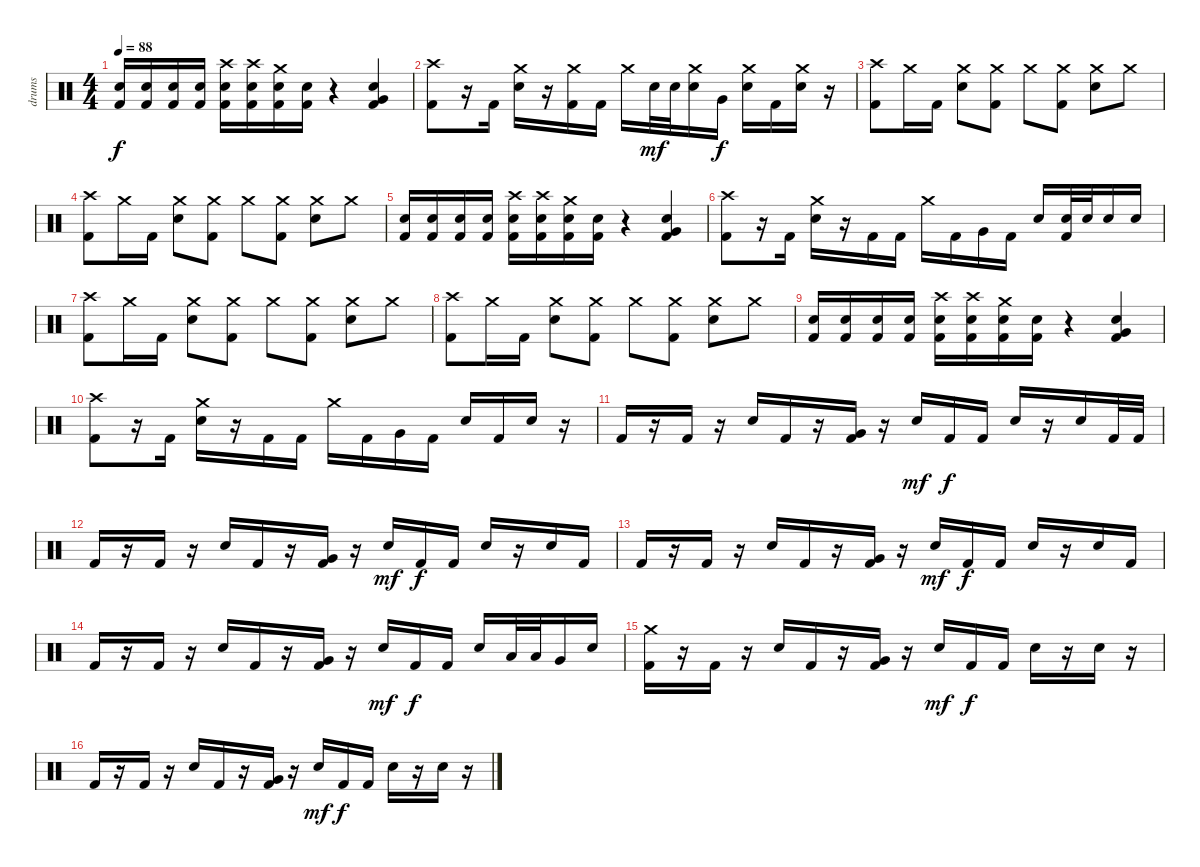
\track ("drums" "drums") {instrument percussion}
\staff {score}
\articulation defaults
\ts (4 4)
\tempo 88
\clef neutral
\ks c
("Electric Snare (hit)" "Kick (hit) 2").16{dy f} ("Electric Snare (hit)" "Kick (hit) 2").16 ("Electric Snare (hit)" "Kick (hit) 2").16 ("Electric Snare (hit)" "Kick (hit) 2").16 ("Crash high (hit)" "Electric Snare (hit)" "Kick (hit) 2").16 ("Crash high (hit)" "Electric Snare (hit)" "Kick (hit) 2").16 ("Crash medium (hit)" "Electric Snare (hit)" "Kick (hit) 2").16 ("Electric Snare (hit)" "Kick (hit) 2").16 r.4 ("Electric Snare (hit)" "Very Low Tom (hit)" "Kick (hit) 2").4 |
("Crash high (hit)" "Kick (hit) 2").8 r.16 "Kick (hit) 2".16 ("Crash medium (hit)" "Electric Snare (hit)").16 r.16 ("Crash medium (hit)" "Kick (hit) 2").16 "Kick (hit) 2".16 "Crash medium (hit)".16 "Electric Snare (hit)".32{dy mf} "Electric Snare (hit)".32 ("Crash medium (hit)" "Electric Snare (hit)").16 "Very Low Tom (hit)".16{dy f} ("Crash medium (hit)" "Electric Snare (hit)").16 "Kick (hit) 2".16 ("Crash medium (hit)" "Electric Snare (hit)").16 r.16 |
("Crash high (hit)" "Kick (hit) 2").8 "Crash medium (hit)".16 "Kick (hit) 2".16 ("Crash medium (hit)" "Electric Snare (hit)").8 ("Crash medium (hit)" "Kick (hit) 2").8 "Crash medium (hit)".8 ("Crash medium (hit)" "Kick (hit) 2").8 ("Crash medium (hit)" "Electric Snare (hit)").8 "Crash medium (hit)".8 |
("Crash high (hit)" "Kick (hit) 2").8 "Crash medium (hit)".16 "Kick (hit) 2".16 ("Crash medium (hit)" "Electric Snare (hit)").8 ("Crash medium (hit)" "Kick (hit) 2").8 "Crash medium (hit)".8 ("Crash medium (hit)" "Kick (hit) 2").8 ("Crash medium (hit)" "Electric Snare (hit)").8 "Crash medium (hit)".8 |
("Electric Snare (hit)" "Kick (hit) 2").16 ("Electric Snare (hit)" "Kick (hit) 2").16 ("Electric Snare (hit)" "Kick (hit) 2").16 ("Electric Snare (hit)" "Kick (hit) 2").16 ("Crash high (hit)" "Electric Snare (hit)" "Kick (hit) 2").16 ("Crash high (hit)" "Electric Snare (hit)" "Kick (hit) 2").16 ("Crash medium (hit)" "Electric Snare (hit)" "Kick (hit) 2").16 ("Electric Snare (hit)" "Kick (hit) 2").16 r.4 ("Electric Snare (hit)" "Very Low Tom (hit)" "Kick (hit) 2").4 |
("Crash high (hit)" "Kick (hit) 2").8 r.16 "Kick (hit) 2".16 ("Crash medium (hit)" "Electric Snare (hit)").16 r.16 "Kick (hit) 2".16 "Kick (hit) 2".16 "Crash medium (hit)".16 "Kick (hit) 2".16 "Very Low Tom (hit)".16 "Kick (hit) 2".16 "Electric Snare (hit)".16 ("Electric Snare (hit)" "Kick (hit) 2").32 "Electric Snare (hit)".32 "Electric Snare (hit)".16 "Electric Snare (hit)".16 |
("Crash high (hit)" "Kick (hit) 2").8 "Crash medium (hit)".16 "Kick (hit) 2".16 ("Crash medium (hit)" "Electric Snare (hit)").8 ("Crash medium (hit)" "Kick (hit) 2").8 "Crash medium (hit)".8 ("Crash medium (hit)" "Kick (hit) 2").8 ("Crash medium (hit)" "Electric Snare (hit)").8 "Crash medium (hit)".8 |
("Crash high (hit)" "Kick (hit) 2").8 "Crash medium (hit)".16 "Kick (hit) 2".16 ("Crash medium (hit)" "Electric Snare (hit)").8 ("Crash medium (hit)" "Kick (hit) 2").8 "Crash medium (hit)".8 ("Crash medium (hit)" "Kick (hit) 2").8 ("Crash medium (hit)" "Electric Snare (hit)").8 "Crash medium (hit)".8 |
("Electric Snare (hit)" "Kick (hit) 2").16 ("Electric Snare (hit)" "Kick (hit) 2").16 ("Electric Snare (hit)" "Kick (hit) 2").16 ("Electric Snare (hit)" "Kick (hit) 2").16 ("Crash high (hit)" "Electric Snare (hit)" "Kick (hit) 2").16 ("Crash high (hit)" "Electric Snare (hit)" "Kick (hit) 2").16 ("Crash medium (hit)" "Electric Snare (hit)" "Kick (hit) 2").16 ("Electric Snare (hit)" "Kick (hit) 2").16 r.4 ("Electric Snare (hit)" "Very Low Tom (hit)" "Kick (hit) 2").4 |
("Crash high (hit)" "Kick (hit) 2").8 r.16 "Kick (hit) 2".16 ("Crash medium (hit)" "Electric Snare (hit)").16 r.16 "Kick (hit) 2".16 "Kick (hit) 2".16 "Crash medium (hit)".16 "Kick (hit) 2".16 "Very Low Tom (hit)".16 "Kick (hit) 2".16 "Electric Snare (hit)".16 "Kick (hit) 2".16 "Electric Snare (hit)".16 r.16 |
"Kick (hit) 2".16 r.16 "Kick (hit) 2".16 r.16 "Electric Snare (hit)".16 "Kick (hit) 2".16 r.16 ("Very Low Tom (hit)" "Kick (hit) 2").16 r.16 "Electric Snare (hit)".16{dy mf} "Kick (hit) 2".16{dy f} "Kick (hit) 2".16 "Electric Snare (hit)".16 r.16 "Electric Snare (hit)".16 "Kick (hit) 2".32 "Kick (hit) 2".32 |
"Kick (hit) 2".16 r.16 "Kick (hit) 2".16 r.16 "Electric Snare (hit)".16 "Kick (hit) 2".16 r.16 ("Very Low Tom (hit)" "Kick (hit) 2").16 r.16 "Electric Snare (hit)".16{dy mf} "Kick (hit) 2".16{dy f} "Kick (hit) 2".16 "Electric Snare (hit)".16 r.16 "Electric Snare (hit)".16 "Kick (hit) 2".16 |
"Kick (hit) 2".16 r.16 "Kick (hit) 2".16 r.16 "Electric Snare (hit)".16 "Kick (hit) 2".16 r.16 ("Very Low Tom (hit)" "Kick (hit) 2").16 r.16 "Electric Snare (hit)".16{dy mf} "Kick (hit) 2".16{dy f} "Kick (hit) 2".16 "Electric Snare (hit)".16 r.16 "Electric Snare (hit)".16 "Kick (hit) 2".16 |
"Kick (hit) 2".16 r.16 "Kick (hit) 2".16 r.16 "Electric Snare (hit)".16 "Kick (hit) 2".16 r.16 ("Very Low Tom (hit)" "Kick (hit) 2").16 r.16 "Electric Snare (hit)".16{dy mf} "Kick (hit) 2".16{dy f} "Kick (hit) 2".16 "Electric Snare (hit)".16 "Low Tom (hit)".32 "Low Tom (hit)".32 "Very Low Tom (hit)".16 "Electric Snare (hit)".16 |
("Crash medium (hit)" "Kick (hit) 2").16 r.16 "Kick (hit) 2".16 r.16 "Electric Snare (hit)".16 "Kick (hit) 2".16 r.16 ("Very Low Tom (hit)" "Kick (hit) 2").16 r.16 "Electric Snare (hit)".16{dy mf} "Kick (hit) 2".16{dy f} "Kick (hit) 2".16 "Electric Snare (hit)".16 r.16 "Electric Snare (hit)".16 r.16 |
"Kick (hit) 2".16 r.16 "Kick (hit) 2".16 r.16 "Electric Snare (hit)".16 "Kick (hit) 2".16 r.16 ("Very Low Tom (hit)" "Kick (hit) 2").16 r.16 "Electric Snare (hit)".16{dy mf} "Kick (hit) 2".16{dy f} "Kick (hit) 2".16 "Electric Snare (hit)".16 r.16 "Electric Snare (hit)".16 r.16
